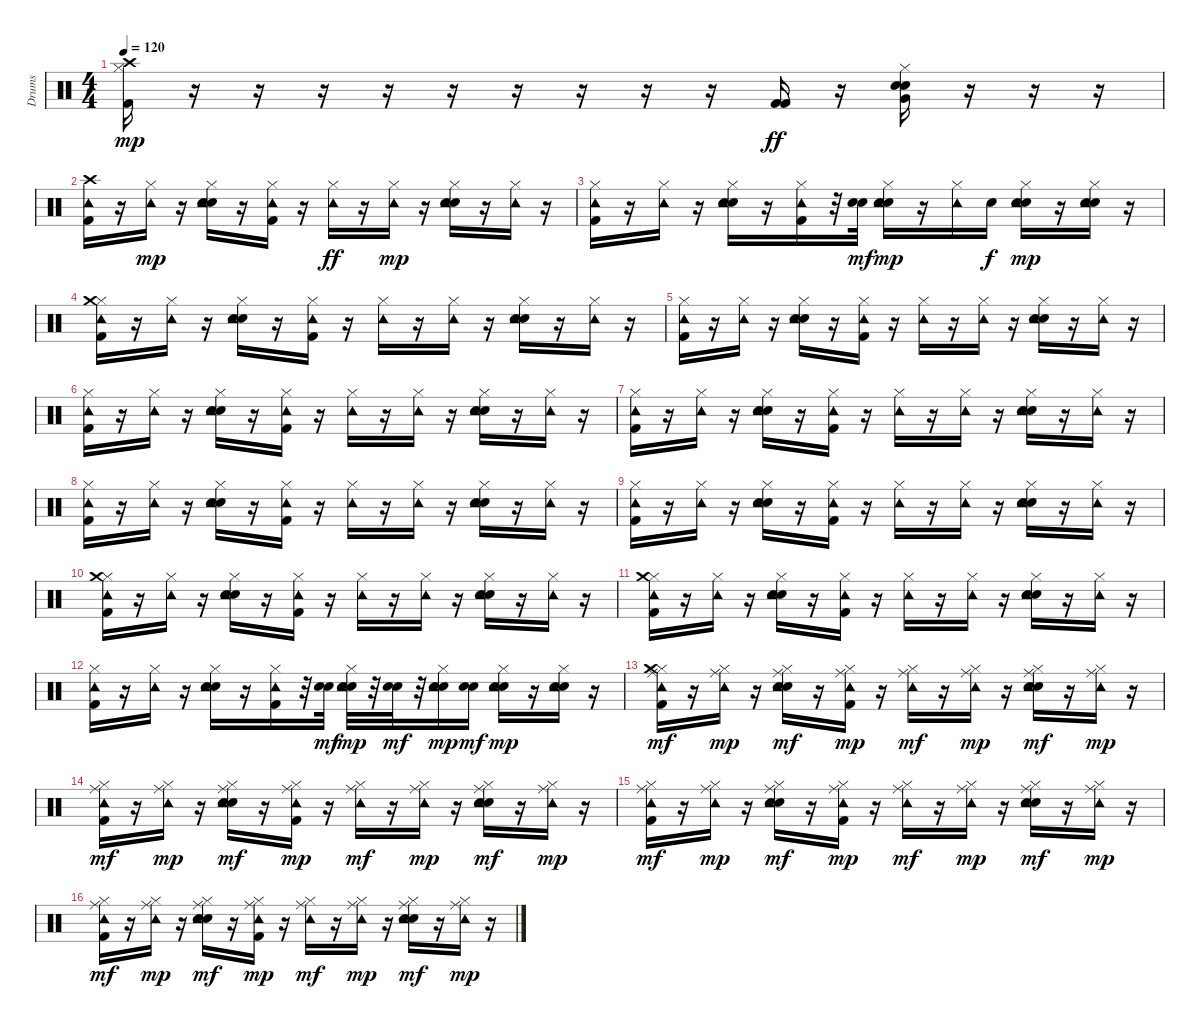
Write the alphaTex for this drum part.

\track ("Drums" "Drums") {instrument percussion}
\staff {score}
\articulation defaults
\ts (4 4)
\tempo 120
\clef neutral
\ks c
("Hi-Hat (closed)" "Crash high (hit)" "Kick (hit) 2").16{dy mp} r.16 r.16 r.16 r.16 r.16 r.16 r.16 r.16 r.16 ("Kick (hit) 2" "Kick (hit) 2").16{dy ff} r.16 ("Hi-Hat (closed)" "Very Low Tom (hit)" "Snare (hit) 2" "Electric Snare (hit)").16 r.16 r.16 r.16 |
("Crash high (hit)" "Tambourine (hit)" "Kick (hit) 2").16 r.16 ("Hi-Hat (closed)" "Tambourine (hit)").16{dy mp} r.16 ("Hi-Hat (closed)" "Snare (hit) 2" "Electric Snare (hit)" "Tambourine (hit)").16 r.16 ("Hi-Hat (closed)" "Tambourine (hit)" "Kick (hit) 2").16 r.16 ("Hi-Hat (closed)" "Tambourine (hit)").16{dy ff} r.16 ("Hi-Hat (closed)" "Tambourine (hit)").16{dy mp} r.16 ("Hi-Hat (closed)" "Snare (hit) 2" "Electric Snare (hit)" "Tambourine (hit)").16 r.16 ("Hi-Hat (closed)" "Tambourine (hit)").16 r.16 |
("Hi-Hat (closed)" "Tambourine (hit)" "Kick (hit) 2").16 r.16 ("Hi-Hat (closed)" "Tambourine (hit)").16 r.16 ("Hi-Hat (closed)" "Snare (hit) 2" "Electric Snare (hit)" "Tambourine (hit)").16 r.16 ("Hi-Hat (closed)" "Tambourine (hit)" "Kick (hit) 2").16 r.32 ("Snare (hit) 2" "Electric Snare (hit)").32{dy mf} ("Hi-Hat (closed)" "Snare (hit) 2" "Electric Snare (hit)" "Tambourine (hit)").16{dy mp} r.16 ("Hi-Hat (closed)" "Tambourine (hit)").16 "Snare (hit) 2".16{dy f} ("Hi-Hat (closed)" "Snare (hit) 2" "Electric Snare (hit)" "Tambourine (hit)").16{dy mp} r.16 ("Hi-Hat (closed)" "Snare (hit) 2" "Electric Snare (hit)" "Tambourine (hit)").16 r.16 |
("Hi-Hat (closed)" "Crash medium (hit)" "Tambourine (hit)" "Kick (hit) 2").16 r.16 ("Hi-Hat (closed)" "Tambourine (hit)").16 r.16 ("Hi-Hat (closed)" "Snare (hit) 2" "Electric Snare (hit)" "Tambourine (hit)").16 r.16 ("Hi-Hat (closed)" "Tambourine (hit)" "Kick (hit) 2").16 r.16 ("Hi-Hat (closed)" "Tambourine (hit)").16 r.16 ("Hi-Hat (closed)" "Tambourine (hit)").16 r.16 ("Hi-Hat (closed)" "Snare (hit) 2" "Electric Snare (hit)" "Tambourine (hit)").16 r.16 ("Hi-Hat (closed)" "Tambourine (hit)").16 r.16 |
("Hi-Hat (closed)" "Tambourine (hit)" "Kick (hit) 2").16 r.16 ("Hi-Hat (closed)" "Tambourine (hit)").16 r.16 ("Hi-Hat (closed)" "Snare (hit) 2" "Electric Snare (hit)" "Tambourine (hit)").16 r.16 ("Hi-Hat (closed)" "Tambourine (hit)" "Kick (hit) 2").16 r.16 ("Hi-Hat (closed)" "Tambourine (hit)").16 r.16 ("Hi-Hat (closed)" "Tambourine (hit)").16 r.16 ("Hi-Hat (closed)" "Snare (hit) 2" "Electric Snare (hit)" "Tambourine (hit)").16 r.16 ("Hi-Hat (closed)" "Tambourine (hit)").16 r.16 |
("Hi-Hat (closed)" "Tambourine (hit)" "Kick (hit) 2").16 r.16 ("Hi-Hat (closed)" "Tambourine (hit)").16 r.16 ("Hi-Hat (closed)" "Snare (hit) 2" "Electric Snare (hit)" "Tambourine (hit)").16 r.16 ("Hi-Hat (closed)" "Tambourine (hit)" "Kick (hit) 2").16 r.16 ("Hi-Hat (closed)" "Tambourine (hit)").16 r.16 ("Hi-Hat (closed)" "Tambourine (hit)").16 r.16 ("Hi-Hat (closed)" "Snare (hit) 2" "Electric Snare (hit)" "Tambourine (hit)").16 r.16 ("Hi-Hat (closed)" "Tambourine (hit)").16 r.16 |
("Hi-Hat (closed)" "Tambourine (hit)" "Kick (hit) 2").16 r.16 ("Hi-Hat (closed)" "Tambourine (hit)").16 r.16 ("Hi-Hat (closed)" "Snare (hit) 2" "Electric Snare (hit)" "Tambourine (hit)").16 r.16 ("Hi-Hat (closed)" "Tambourine (hit)" "Kick (hit) 2").16 r.16 ("Hi-Hat (closed)" "Tambourine (hit)").16 r.16 ("Hi-Hat (closed)" "Tambourine (hit)").16 r.16 ("Hi-Hat (closed)" "Snare (hit) 2" "Electric Snare (hit)" "Tambourine (hit)").16 r.16 ("Hi-Hat (closed)" "Tambourine (hit)").16 r.16 |
("Hi-Hat (closed)" "Tambourine (hit)" "Kick (hit) 2").16 r.16 ("Hi-Hat (closed)" "Tambourine (hit)").16 r.16 ("Hi-Hat (closed)" "Snare (hit) 2" "Electric Snare (hit)" "Tambourine (hit)").16 r.16 ("Hi-Hat (closed)" "Tambourine (hit)" "Kick (hit) 2").16 r.16 ("Hi-Hat (closed)" "Tambourine (hit)").16 r.16 ("Hi-Hat (closed)" "Tambourine (hit)").16 r.16 ("Hi-Hat (closed)" "Snare (hit) 2" "Electric Snare (hit)" "Tambourine (hit)").16 r.16 ("Hi-Hat (closed)" "Tambourine (hit)").16 r.16 |
("Hi-Hat (closed)" "Tambourine (hit)" "Kick (hit) 2").16 r.16 ("Hi-Hat (closed)" "Tambourine (hit)").16 r.16 ("Hi-Hat (closed)" "Snare (hit) 2" "Electric Snare (hit)" "Tambourine (hit)").16 r.16 ("Hi-Hat (closed)" "Tambourine (hit)" "Kick (hit) 2").16 r.16 ("Hi-Hat (closed)" "Tambourine (hit)").16 r.16 ("Hi-Hat (closed)" "Tambourine (hit)").16 r.16 ("Hi-Hat (closed)" "Snare (hit) 2" "Electric Snare (hit)" "Tambourine (hit)").16 r.16 ("Hi-Hat (closed)" "Tambourine (hit)").16 r.16 |
("Hi-Hat (closed)" "Crash medium (hit)" "Tambourine (hit)" "Kick (hit) 2").16 r.16 ("Hi-Hat (closed)" "Tambourine (hit)").16 r.16 ("Hi-Hat (closed)" "Snare (hit) 2" "Electric Snare (hit)" "Tambourine (hit)").16 r.16 ("Hi-Hat (closed)" "Tambourine (hit)" "Kick (hit) 2").16 r.16 ("Hi-Hat (closed)" "Tambourine (hit)").16 r.16 ("Hi-Hat (closed)" "Tambourine (hit)").16 r.16 ("Hi-Hat (closed)" "Snare (hit) 2" "Electric Snare (hit)" "Tambourine (hit)").16 r.16 ("Hi-Hat (closed)" "Tambourine (hit)").16 r.16 |
("Hi-Hat (closed)" "Crash medium (hit)" "Tambourine (hit)" "Kick (hit) 2").16 r.16 ("Hi-Hat (closed)" "Tambourine (hit)").16 r.16 ("Hi-Hat (closed)" "Snare (hit) 2" "Electric Snare (hit)" "Tambourine (hit)").16 r.16 ("Hi-Hat (closed)" "Tambourine (hit)" "Kick (hit) 2").16 r.16 ("Hi-Hat (closed)" "Tambourine (hit)").16 r.16 ("Hi-Hat (closed)" "Tambourine (hit)").16 r.16 ("Hi-Hat (closed)" "Snare (hit) 2" "Electric Snare (hit)" "Tambourine (hit)").16 r.16 ("Hi-Hat (closed)" "Tambourine (hit)").16 r.16 |
("Hi-Hat (closed)" "Tambourine (hit)" "Kick (hit) 2").16 r.16 ("Hi-Hat (closed)" "Tambourine (hit)").16 r.16 ("Hi-Hat (closed)" "Snare (hit) 2" "Electric Snare (hit)" "Tambourine (hit)").16 r.16 ("Hi-Hat (closed)" "Tambourine (hit)" "Kick (hit) 2").16 r.32 ("Snare (hit) 2" "Electric Snare (hit)").32{dy mf} ("Hi-Hat (closed)" "Snare (hit) 2" "Electric Snare (hit)" "Tambourine (hit)").32{dy mp} r.32 ("Snare (hit) 2" "Electric Snare (hit)").32{dy mf} r.32 ("Hi-Hat (closed)" "Snare (hit) 2" "Electric Snare (hit)" "Tambourine (hit)").16{dy mp} ("Snare (hit) 2" "Electric Snare (hit)").16{dy mf} ("Hi-Hat (closed)" "Snare (hit) 2" "Electric Snare (hit)" "Tambourine (hit)").16{dy mp} r.16 ("Hi-Hat (closed)" "Snare (hit) 2" "Electric Snare (hit)" "Tambourine (hit)").16 r.16 |
("Hi-Hat (closed)" "Ride (middle)" "Crash medium (hit)" "Tambourine (hit)" "Kick (hit) 2").16{dy mf} r.16 ("Hi-Hat (closed)" "Ride (middle)" "Tambourine (hit)").16{dy mp} r.16 ("Hi-Hat (closed)" "Ride (middle)" "Snare (hit) 2" "Electric Snare (hit)" "Tambourine (hit)").16{dy mf} r.16 ("Hi-Hat (closed)" "Ride (middle)" "Tambourine (hit)" "Kick (hit) 2").16{dy mp} r.16 ("Hi-Hat (closed)" "Ride (middle)" "Tambourine (hit)").16{dy mf} r.16 ("Hi-Hat (closed)" "Ride (middle)" "Tambourine (hit)").16{dy mp} r.16 ("Hi-Hat (closed)" "Ride (middle)" "Snare (hit) 2" "Electric Snare (hit)" "Tambourine (hit)").16{dy mf} r.16 ("Hi-Hat (closed)" "Ride (middle)" "Tambourine (hit)").16{dy mp} r.16 |
("Hi-Hat (closed)" "Ride (middle)" "Tambourine (hit)" "Kick (hit) 2").16{dy mf} r.16 ("Hi-Hat (closed)" "Ride (middle)" "Tambourine (hit)").16{dy mp} r.16 ("Hi-Hat (closed)" "Ride (middle)" "Snare (hit) 2" "Electric Snare (hit)" "Tambourine (hit)").16{dy mf} r.16 ("Hi-Hat (closed)" "Ride (middle)" "Tambourine (hit)" "Kick (hit) 2").16{dy mp} r.16 ("Hi-Hat (closed)" "Ride (middle)" "Tambourine (hit)").16{dy mf} r.16 ("Hi-Hat (closed)" "Ride (middle)" "Tambourine (hit)").16{dy mp} r.16 ("Hi-Hat (closed)" "Ride (middle)" "Snare (hit) 2" "Electric Snare (hit)" "Tambourine (hit)").16{dy mf} r.16 ("Hi-Hat (closed)" "Ride (middle)" "Tambourine (hit)").16{dy mp} r.16 |
("Hi-Hat (closed)" "Ride (middle)" "Tambourine (hit)" "Kick (hit) 2").16{dy mf} r.16 ("Hi-Hat (closed)" "Ride (middle)" "Tambourine (hit)").16{dy mp} r.16 ("Hi-Hat (closed)" "Ride (middle)" "Snare (hit) 2" "Electric Snare (hit)" "Tambourine (hit)").16{dy mf} r.16 ("Hi-Hat (closed)" "Ride (middle)" "Tambourine (hit)" "Kick (hit) 2").16{dy mp} r.16 ("Hi-Hat (closed)" "Ride (middle)" "Tambourine (hit)").16{dy mf} r.16 ("Hi-Hat (closed)" "Ride (middle)" "Tambourine (hit)").16{dy mp} r.16 ("Hi-Hat (closed)" "Ride (middle)" "Snare (hit) 2" "Electric Snare (hit)" "Tambourine (hit)").16{dy mf} r.16 ("Hi-Hat (closed)" "Ride (middle)" "Tambourine (hit)").16{dy mp} r.16 |
("Hi-Hat (closed)" "Ride (middle)" "Tambourine (hit)" "Kick (hit) 2").16{dy mf} r.16 ("Hi-Hat (closed)" "Ride (middle)" "Tambourine (hit)").16{dy mp} r.16 ("Hi-Hat (closed)" "Ride (middle)" "Snare (hit) 2" "Electric Snare (hit)" "Tambourine (hit)").16{dy mf} r.16 ("Hi-Hat (closed)" "Ride (middle)" "Tambourine (hit)" "Kick (hit) 2").16{dy mp} r.16 ("Hi-Hat (closed)" "Ride (middle)" "Tambourine (hit)").16{dy mf} r.16 ("Hi-Hat (closed)" "Ride (middle)" "Tambourine (hit)").16{dy mp} r.16 ("Hi-Hat (closed)" "Ride (middle)" "Snare (hit) 2" "Electric Snare (hit)" "Tambourine (hit)").16{dy mf} r.16 ("Hi-Hat (closed)" "Ride (middle)" "Tambourine (hit)").16{dy mp} r.16
